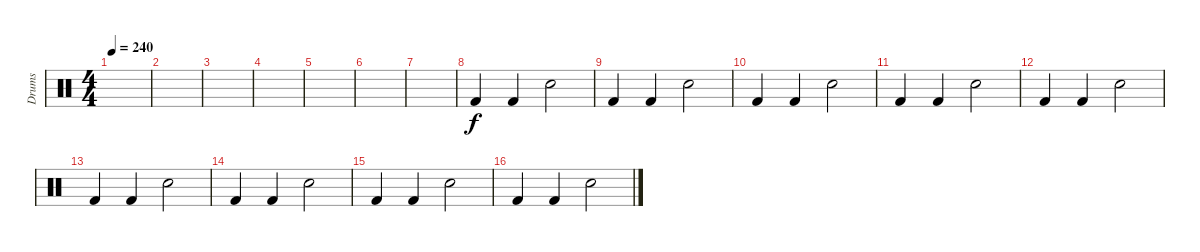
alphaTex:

\track ("Drums" "Drums") {instrument percussion}
\staff {score}
\articulation defaults
\ts (4 4)
\tempo 240
\clef neutral
\ks c
|
|
|
|
|
|
|
"Kick (hit) 2".4 "Kick (hit) 2".4 "Snare (hit) 2".2 |
"Kick (hit) 2".4 "Kick (hit) 2".4 "Snare (hit) 2".2 |
"Kick (hit) 2".4 "Kick (hit) 2".4 "Snare (hit) 2".2 |
"Kick (hit) 2".4 "Kick (hit) 2".4 "Snare (hit) 2".2 |
"Kick (hit) 2".4 "Kick (hit) 2".4 "Snare (hit) 2".2 |
"Kick (hit) 2".4 "Kick (hit) 2".4 "Snare (hit) 2".2 |
"Kick (hit) 2".4 "Kick (hit) 2".4 "Snare (hit) 2".2 |
"Kick (hit) 2".4 "Kick (hit) 2".4 "Snare (hit) 2".2 |
"Kick (hit) 2".4 "Kick (hit) 2".4 "Snare (hit) 2".2
